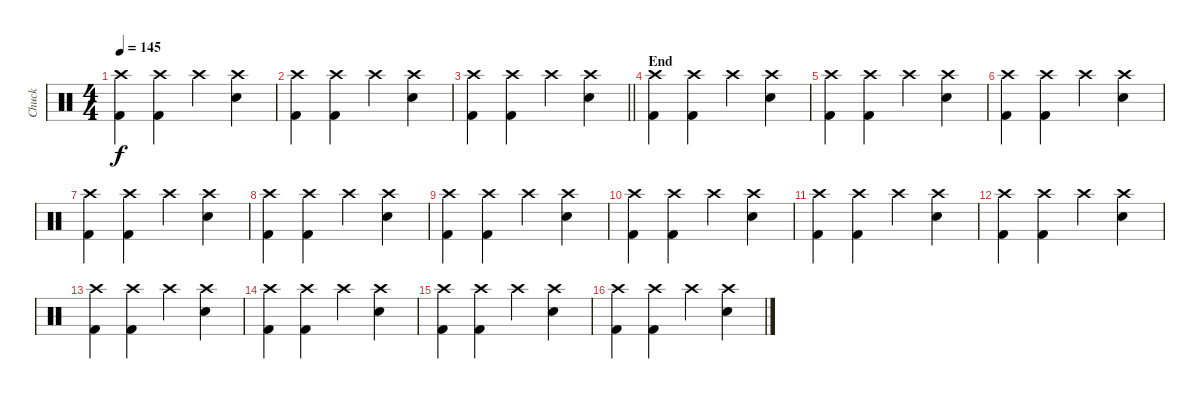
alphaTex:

\track ("Chuck" "Chuck") {instrument percussion}
\staff {score}
\articulation defaults
\ts (4 4)
\tempo 145
\clef neutral
\ks c
("Crash high (hit)" "Kick (hit) 2").4{dy f} ("Crash high (hit)" "Kick (hit) 2").4 "Crash high (hit)".4 ("Crash high (hit)" "Snare (hit) 2").4 |
("Crash high (hit)" "Kick (hit) 2").4 ("Crash high (hit)" "Kick (hit) 2").4 "Crash high (hit)".4 ("Crash high (hit)" "Snare (hit) 2").4 |
\barLineRight lightlight
("Crash high (hit)" "Kick (hit) 2").4 ("Crash high (hit)" "Kick (hit) 2").4 "Crash high (hit)".4 ("Crash high (hit)" "Snare (hit) 2").4 |
\section ("" "End")
("Crash high (hit)" "Kick (hit) 2").4 ("Crash high (hit)" "Kick (hit) 2").4 "Crash high (hit)".4 ("Crash high (hit)" "Snare (hit) 2").4 |
("Crash high (hit)" "Kick (hit) 2").4 ("Crash high (hit)" "Kick (hit) 2").4 "Crash high (hit)".4 ("Crash high (hit)" "Snare (hit) 2").4 |
("Crash high (hit)" "Kick (hit) 2").4 ("Crash high (hit)" "Kick (hit) 2").4 "Crash high (hit)".4 ("Crash high (hit)" "Snare (hit) 2").4 |
("Crash high (hit)" "Kick (hit) 2").4 ("Crash high (hit)" "Kick (hit) 2").4 "Crash high (hit)".4 ("Crash high (hit)" "Snare (hit) 2").4 |
("Crash high (hit)" "Kick (hit) 2").4 ("Crash high (hit)" "Kick (hit) 2").4 "Crash high (hit)".4 ("Crash high (hit)" "Snare (hit) 2").4 |
("Crash high (hit)" "Kick (hit) 2").4 ("Crash high (hit)" "Kick (hit) 2").4 "Crash high (hit)".4 ("Crash high (hit)" "Snare (hit) 2").4 |
("Crash high (hit)" "Kick (hit) 2").4 ("Crash high (hit)" "Kick (hit) 2").4 "Crash high (hit)".4 ("Crash high (hit)" "Snare (hit) 2").4 |
("Crash high (hit)" "Kick (hit) 2").4 ("Crash high (hit)" "Kick (hit) 2").4 "Crash high (hit)".4 ("Crash high (hit)" "Snare (hit) 2").4 |
("Crash high (hit)" "Kick (hit) 2").4 ("Crash high (hit)" "Kick (hit) 2").4 "Crash high (hit)".4 ("Crash high (hit)" "Snare (hit) 2").4 |
("Crash high (hit)" "Kick (hit) 2").4 ("Crash high (hit)" "Kick (hit) 2").4 "Crash high (hit)".4 ("Crash high (hit)" "Snare (hit) 2").4 |
("Crash high (hit)" "Kick (hit) 2").4 ("Crash high (hit)" "Kick (hit) 2").4 "Crash high (hit)".4 ("Crash high (hit)" "Snare (hit) 2").4 |
("Crash high (hit)" "Kick (hit) 2").4 ("Crash high (hit)" "Kick (hit) 2").4 "Crash high (hit)".4 ("Crash high (hit)" "Snare (hit) 2").4 |
("Crash high (hit)" "Kick (hit) 2").4 ("Crash high (hit)" "Kick (hit) 2").4 "Crash high (hit)".4 ("Crash high (hit)" "Snare (hit) 2").4
